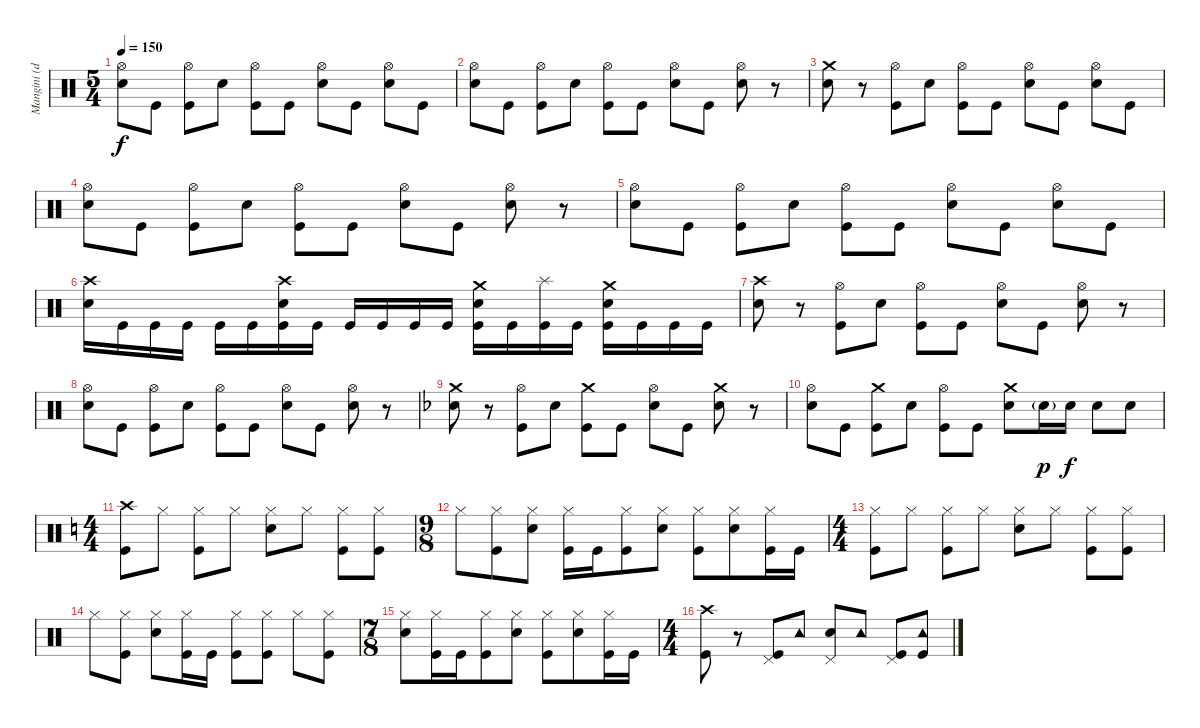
\track ("Mangini (drums)" "Mangini (d") {instrument percussion}
\staff {score}
\articulation defaults
\ts (5 4)
\tempo 150
\clef neutral
\ks aminor
("Hi-Hat (open)" "Snare (hit) 2").8{dy f} "Kick (hit)".8 ("Hi-Hat (open)" "Kick (hit)").8 "Snare (hit) 2".8 ("Hi-Hat (open)" "Kick (hit)").8 "Kick (hit)".8 ("Hi-Hat (open)" "Snare (hit) 2").8 "Kick (hit)".8 ("Hi-Hat (open)" "Snare (hit) 2").8 "Kick (hit)".8 |
("Hi-Hat (open)" "Snare (hit) 2").8 "Kick (hit)".8 ("Hi-Hat (open)" "Kick (hit)").8 "Snare (hit) 2".8 ("Hi-Hat (open)" "Kick (hit)").8 "Kick (hit)".8 ("Hi-Hat (open)" "Snare (hit) 2").8 "Kick (hit)".8 ("Hi-Hat (open)" "Snare (hit) 2").8 r.8 |
("Crash medium (hit)" "Snare (hit) 2").8 r.8 ("Hi-Hat (open)" "Kick (hit)").8 "Snare (hit) 2".8 ("Hi-Hat (open)" "Kick (hit)").8 "Kick (hit)".8 ("Hi-Hat (open)" "Snare (hit) 2").8 "Kick (hit)".8 ("Hi-Hat (open)" "Snare (hit) 2").8 "Kick (hit)".8 |
("Hi-Hat (open)" "Snare (hit) 2").8 "Kick (hit)".8 ("Hi-Hat (open)" "Kick (hit)").8 "Snare (hit) 2".8 ("Hi-Hat (open)" "Kick (hit)").8 "Kick (hit)".8 ("Hi-Hat (open)" "Snare (hit) 2").8 "Kick (hit)".8 ("Hi-Hat (open)" "Snare (hit) 2").8 r.8 |
("Hi-Hat (open)" "Snare (hit) 2").8 "Kick (hit)".8 ("Hi-Hat (open)" "Kick (hit)").8 "Snare (hit) 2".8 ("Hi-Hat (open)" "Kick (hit)").8 "Kick (hit)".8 ("Hi-Hat (open)" "Snare (hit) 2").8 "Kick (hit)".8 ("Hi-Hat (open)" "Snare (hit) 2").8 "Kick (hit)".8 |
("Crash high (hit)" "Snare (hit) 2").16 "Kick (hit)".16 "Kick (hit)".16 "Kick (hit)".16 "Kick (hit)".16 "Kick (hit)".16 ("Crash high (hit)" "Snare (hit) 2" "Kick (hit)").16 "Kick (hit)".16 "Kick (hit)".16 "Kick (hit)".16 "Kick (hit)".16 "Kick (hit)".16 ("Crash medium (hit)" "Snare (hit) 2" "Kick (hit)").16 "Kick (hit)".16 ("Splash (hit)" "Kick (hit)").16 "Kick (hit)".16 ("Crash medium (hit)" "Snare (hit) 2" "Kick (hit)").16 "Kick (hit)".16 "Kick (hit)".16 "Kick (hit)".16 |
("Crash high (hit)" "Snare (hit) 2").8 r.8 ("Hi-Hat (open)" "Kick (hit)").8 "Snare (hit) 2".8 ("Hi-Hat (open)" "Kick (hit)").8 "Kick (hit)".8 ("Hi-Hat (open)" "Snare (hit) 2").8 "Kick (hit)".8 ("Hi-Hat (open)" "Snare (hit) 2").8 r.8 |
("Hi-Hat (open)" "Snare (hit) 2").8 "Kick (hit)".8 ("Hi-Hat (open)" "Kick (hit)").8 "Snare (hit) 2".8 ("Hi-Hat (open)" "Kick (hit)").8 "Kick (hit)".8 ("Hi-Hat (open)" "Snare (hit) 2").8 "Kick (hit)".8 ("Hi-Hat (open)" "Snare (hit) 2").8 r.8 |
\ks dminor
("Crash medium (hit)" "Snare (hit) 2").8 r.8 ("Hi-Hat (open)" "Kick (hit)").8 "Snare (hit) 2".8 ("Crash medium (hit)" "Kick (hit)").8 "Kick (hit)".8 ("Hi-Hat (open)" "Snare (hit) 2").8 "Kick (hit)".8 ("Crash medium (hit)" "Snare (hit) 2").8 r.8 |
("Hi-Hat (open)" "Snare (hit) 2").8 "Kick (hit)".8 ("Crash medium (hit)" "Kick (hit)").8 "Snare (hit) 2".8 ("Hi-Hat (open)" "Kick (hit)").8 "Kick (hit)".8 ("Crash medium (hit)" "Snare (hit) 2").8 "Snare (hit) 2"{g}.16{dy p} "Snare (hit) 2".16{dy f} "Snare (hit) 2".8 "Snare (hit) 2".8 |
\ts (4 4)
\ks aminor
("Crash high (hit)" "Kick (hit)").8 "Hi-Hat (closed)".8 ("Hi-Hat (closed)" "Kick (hit)").8 "Hi-Hat (closed)".8 ("Hi-Hat (closed)" "Snare (hit) 2").8 "Hi-Hat (closed)".8 ("Hi-Hat (closed)" "Kick (hit)").8 ("Hi-Hat (closed)" "Kick (hit)").8 |
\ts (9 8)
"Hi-Hat (closed)".8 ("Hi-Hat (closed)" "Kick (hit)").8 ("Hi-Hat (closed)" "Snare (hit) 2").8 ("Hi-Hat (closed)" "Kick (hit)").16 "Kick (hit)".16 ("Hi-Hat (closed)" "Kick (hit)").8 ("Hi-Hat (closed)" "Snare (hit) 2").8 ("Hi-Hat (closed)" "Kick (hit)").8 ("Hi-Hat (closed)" "Snare (hit) 2").8 ("Hi-Hat (closed)" "Kick (hit)").16 "Kick (hit)".16 |
\ts (4 4)
("Hi-Hat (closed)" "Kick (hit)").8 "Hi-Hat (closed)".8 ("Hi-Hat (closed)" "Kick (hit)").8 "Hi-Hat (closed)".8 ("Hi-Hat (closed)" "Snare (hit) 2").8 "Hi-Hat (closed)".8 ("Hi-Hat (closed)" "Kick (hit)").8 ("Hi-Hat (closed)" "Kick (hit)").8 |
"Hi-Hat (closed)".8 ("Hi-Hat (closed)" "Kick (hit)").8 ("Hi-Hat (closed)" "Snare (hit) 2").8 ("Hi-Hat (closed)" "Kick (hit)").16 "Kick (hit)".16 ("Hi-Hat (closed)" "Kick (hit)").8 ("Hi-Hat (closed)" "Kick (hit)").8 "Hi-Hat (closed)".8 ("Hi-Hat (closed)" "Kick (hit)").8 |
\ts (7 8)
("Hi-Hat (closed)" "Snare (hit) 2").8 ("Hi-Hat (closed)" "Kick (hit)").16 "Kick (hit)".16 ("Hi-Hat (closed)" "Kick (hit)").8 ("Hi-Hat (closed)" "Snare (hit) 2").8 ("Hi-Hat (closed)" "Kick (hit)").8 ("Hi-Hat (closed)" "Snare (hit) 2").8 ("Hi-Hat (closed)" "Kick (hit)").16 "Kick (hit)".16 |
\ts (4 4)
("Crash high (hit)" "Kick (hit)").8 r.8 ("Pedal Hi-Hat (hit)" "Kick (hit)").8 "Tambourine (hit)".8 ("Pedal Hi-Hat (hit)" "Snare (hit) 2").8 "Tambourine (hit)".8 ("Pedal Hi-Hat (hit)" "Kick (hit)").8 ("Tambourine (hit)" "Kick (hit)").8
